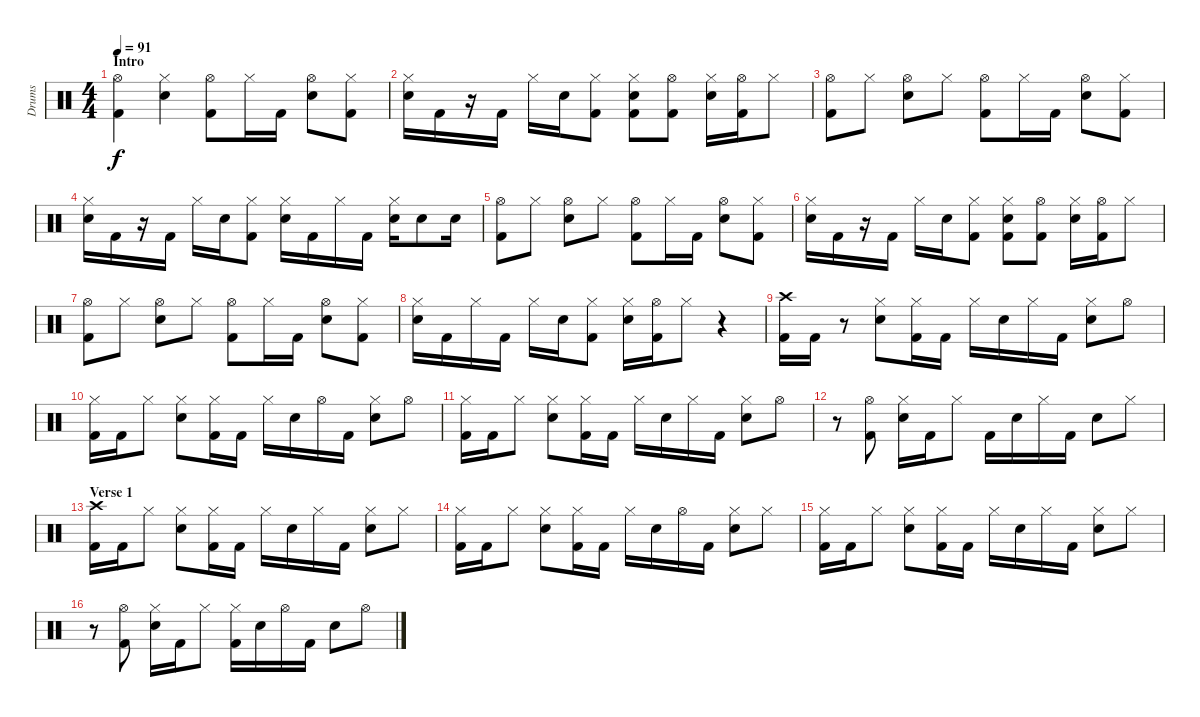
\track ("Drums" "Drums") {instrument percussion}
\staff {score}
\articulation defaults
\ts (4 4)
\section ("" "Intro")
\tempo 91
\clef neutral
\ks c
("Hi-Hat (open)" "Kick (hit) 2").4{dy f} ("Hi-Hat (closed)" "Electric Snare (hit)").4 ("Hi-Hat (open)" "Kick (hit) 2").8 "Hi-Hat (closed)".16 "Kick (hit) 2".16 ("Hi-Hat (open)" "Electric Snare (hit)").8 ("Hi-Hat (closed)" "Kick (hit) 2").8 |
("Hi-Hat (closed)" "Electric Snare (hit)").16 "Kick (hit) 2".16 r.16 "Kick (hit) 2".16 "Hi-Hat (closed)".16 "Electric Snare (hit)".16 ("Hi-Hat (closed)" "Kick (hit) 2").8 ("Hi-Hat (closed)" "Electric Snare (hit)" "Kick (hit) 2").8 ("Hi-Hat (open)" "Kick (hit) 2").8 ("Hi-Hat (closed)" "Electric Snare (hit)").16 ("Hi-Hat (open)" "Kick (hit) 2").16 "Hi-Hat (closed)".8 |
("Hi-Hat (open)" "Kick (hit) 2").8 "Hi-Hat (closed)".8 ("Hi-Hat (open)" "Electric Snare (hit)").8 "Hi-Hat (closed)".8 ("Hi-Hat (open)" "Kick (hit) 2").8 "Hi-Hat (closed)".16 "Kick (hit) 2".16 ("Hi-Hat (open)" "Electric Snare (hit)").8 ("Hi-Hat (closed)" "Kick (hit) 2").8 |
("Hi-Hat (closed)" "Electric Snare (hit)").16 "Kick (hit) 2".16 r.16 "Kick (hit) 2".16 "Hi-Hat (closed)".16 "Electric Snare (hit)".16 ("Hi-Hat (closed)" "Kick (hit) 2").8 ("Hi-Hat (closed)" "Electric Snare (hit)").16 "Kick (hit) 2".16 "Hi-Hat (closed)".16 "Kick (hit) 2".16 ("Hi-Hat (closed)" "Electric Snare (hit)").16 "Electric Snare (hit)".8 "Electric Snare (hit)".16 |
("Hi-Hat (open)" "Kick (hit) 2").8 "Hi-Hat (closed)".8 ("Hi-Hat (open)" "Electric Snare (hit)").8 "Hi-Hat (closed)".8 ("Hi-Hat (open)" "Kick (hit) 2").8 "Hi-Hat (closed)".16 "Kick (hit) 2".16 ("Hi-Hat (open)" "Electric Snare (hit)").8 ("Hi-Hat (closed)" "Kick (hit) 2").8 |
("Hi-Hat (closed)" "Electric Snare (hit)").16 "Kick (hit) 2".16 r.16 "Kick (hit) 2".16 "Hi-Hat (closed)".16 "Electric Snare (hit)".16 ("Hi-Hat (closed)" "Kick (hit) 2").8 ("Hi-Hat (closed)" "Electric Snare (hit)" "Kick (hit) 2").8 ("Hi-Hat (open)" "Kick (hit) 2").8 ("Hi-Hat (closed)" "Electric Snare (hit)").16 ("Hi-Hat (open)" "Kick (hit) 2").16 "Hi-Hat (closed)".8 |
("Hi-Hat (open)" "Kick (hit) 2").8 "Hi-Hat (closed)".8 ("Hi-Hat (open)" "Electric Snare (hit)").8 "Hi-Hat (closed)".8 ("Hi-Hat (open)" "Kick (hit) 2").8 "Hi-Hat (closed)".16 "Kick (hit) 2".16 ("Hi-Hat (open)" "Electric Snare (hit)").8 ("Hi-Hat (closed)" "Kick (hit) 2").8 |
("Hi-Hat (closed)" "Electric Snare (hit)").16 "Kick (hit) 2".16 "Hi-Hat (closed)".16 "Kick (hit) 2".16 "Hi-Hat (closed)".16 "Electric Snare (hit)".16 ("Hi-Hat (closed)" "Kick (hit) 2").8 ("Hi-Hat (closed)" "Electric Snare (hit)").16 ("Hi-Hat (open)" "Kick (hit) 2").16 "Hi-Hat (closed)".8 r.4 |
("Crash high (hit)" "Kick (hit) 2").16 "Kick (hit) 2".16 r.8 ("Hi-Hat (closed)" "Electric Snare (hit)").8 ("Hi-Hat (closed)" "Kick (hit) 2").16 "Kick (hit) 2".16 "Hi-Hat (closed)".16 "Electric Snare (hit)".16 "Hi-Hat (closed)".16 "Kick (hit) 2".16 ("Hi-Hat (closed)" "Electric Snare (hit)").8 "Hi-Hat (open)".8 |
("Hi-Hat (closed)" "Kick (hit) 2").16 "Kick (hit) 2".16 "Hi-Hat (closed)".8 ("Hi-Hat (closed)" "Electric Snare (hit)").8 ("Hi-Hat (closed)" "Kick (hit) 2").16 "Kick (hit) 2".16 "Hi-Hat (closed)".16 "Electric Snare (hit)".16 "Hi-Hat (open)".16 "Kick (hit) 2".16 ("Hi-Hat (closed)" "Electric Snare (hit)").8 "Hi-Hat (open)".8 |
("Hi-Hat (closed)" "Kick (hit) 2").16 "Kick (hit) 2".16 "Hi-Hat (closed)".8 ("Hi-Hat (closed)" "Electric Snare (hit)").8 ("Hi-Hat (closed)" "Kick (hit) 2").16 "Kick (hit) 2".16 "Hi-Hat (closed)".16 "Electric Snare (hit)".16 "Hi-Hat (closed)".16 "Kick (hit) 2".16 ("Hi-Hat (closed)" "Electric Snare (hit)").8 "Hi-Hat (open)".8 |
r.8 ("Hi-Hat (open)" "Kick (hit) 2").8 ("Hi-Hat (closed)" "Electric Snare (hit)").16 "Kick (hit) 2".16 "Hi-Hat (closed)".8 "Kick (hit) 2".16 "Electric Snare (hit)".16 "Hi-Hat (closed)".16 "Kick (hit) 2".16 "Electric Snare (hit)".8 "Hi-Hat (closed)".8 |
\section ("" "Verse 1")
("Crash high (hit)" "Kick (hit) 2").16 "Kick (hit) 2".16 "Hi-Hat (closed)".8 ("Hi-Hat (closed)" "Electric Snare (hit)").8 ("Hi-Hat (closed)" "Kick (hit) 2").16 "Kick (hit) 2".16 "Hi-Hat (closed)".16 "Electric Snare (hit)".16 "Hi-Hat (closed)".16 "Kick (hit) 2".16 ("Hi-Hat (closed)" "Electric Snare (hit)").8 "Hi-Hat (closed)".8 |
("Hi-Hat (closed)" "Kick (hit) 2").16 "Kick (hit) 2".16 "Hi-Hat (closed)".8 ("Hi-Hat (closed)" "Electric Snare (hit)").8 ("Hi-Hat (closed)" "Kick (hit) 2").16 "Kick (hit) 2".16 "Hi-Hat (closed)".16 "Electric Snare (hit)".16 "Hi-Hat (open)".16 "Kick (hit) 2".16 ("Hi-Hat (closed)" "Electric Snare (hit)").8 "Hi-Hat (closed)".8 |
("Hi-Hat (closed)" "Kick (hit) 2").16 "Kick (hit) 2".16 "Hi-Hat (closed)".8 ("Hi-Hat (closed)" "Electric Snare (hit)").8 ("Hi-Hat (closed)" "Kick (hit) 2").16 "Kick (hit) 2".16 "Hi-Hat (closed)".16 "Electric Snare (hit)".16 "Hi-Hat (closed)".16 "Kick (hit) 2".16 ("Hi-Hat (closed)" "Electric Snare (hit)").8 "Hi-Hat (closed)".8 |
r.8 ("Hi-Hat (open)" "Kick (hit) 2").8 ("Hi-Hat (closed)" "Electric Snare (hit)").16 "Kick (hit) 2".16 "Hi-Hat (closed)".8 ("Hi-Hat (closed)" "Kick (hit) 2").16 "Electric Snare (hit)".16 "Hi-Hat (open)".16 "Kick (hit) 2".16 "Electric Snare (hit)".8 "Hi-Hat (open)".8
